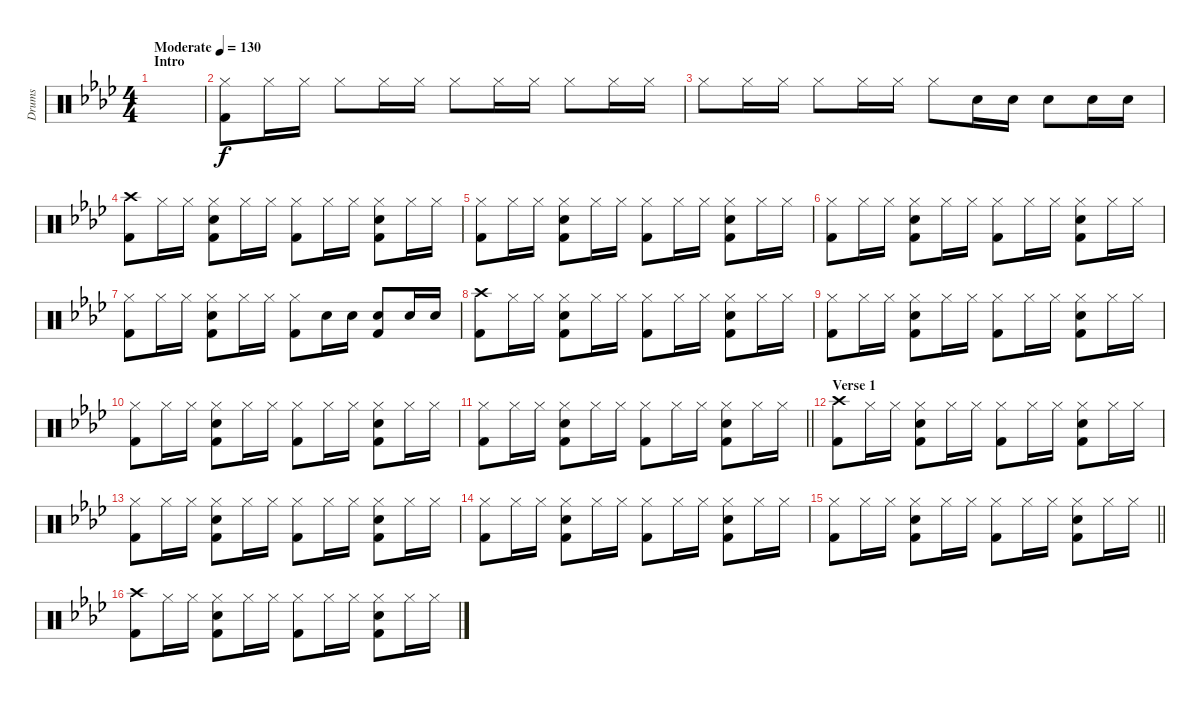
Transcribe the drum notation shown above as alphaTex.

\track ("Drums" "Drums") {instrument percussion}
\staff {score}
\articulation defaults
\ts (4 4)
\section ("" "Intro")
\tempo (130 "Moderate")
\clef neutral
\ks ab
|
("Hi-Hat (closed)" "Kick (hit) 2").8 "Hi-Hat (closed)".16 "Hi-Hat (closed)".16 "Hi-Hat (closed)".8 "Hi-Hat (closed)".16 "Hi-Hat (closed)".16 "Hi-Hat (closed)".8 "Hi-Hat (closed)".16 "Hi-Hat (closed)".16 "Hi-Hat (closed)".8 "Hi-Hat (closed)".16 "Hi-Hat (closed)".16 |
"Hi-Hat (closed)".8 "Hi-Hat (closed)".16 "Hi-Hat (closed)".16 "Hi-Hat (closed)".8 "Hi-Hat (closed)".16 "Hi-Hat (closed)".16 "Hi-Hat (closed)".8 "Snare (hit) 2".16 "Snare (hit) 2".16 "Snare (hit) 2".8 "Snare (hit) 2".16 "Snare (hit) 2".16 |
("Crash high (hit)" "Kick (hit) 2").8 "Hi-Hat (closed)".16 "Hi-Hat (closed)".16 ("Hi-Hat (closed)" "Snare (hit) 2" "Kick (hit) 2").8 "Hi-Hat (closed)".16 "Hi-Hat (closed)".16 ("Hi-Hat (closed)" "Kick (hit) 2").8 "Hi-Hat (closed)".16 "Hi-Hat (closed)".16 ("Hi-Hat (closed)" "Snare (hit) 2" "Kick (hit) 2").8 "Hi-Hat (closed)".16 "Hi-Hat (closed)".16 |
("Hi-Hat (closed)" "Kick (hit) 2").8 "Hi-Hat (closed)".16 "Hi-Hat (closed)".16 ("Hi-Hat (closed)" "Snare (hit) 2" "Kick (hit) 2").8 "Hi-Hat (closed)".16 "Hi-Hat (closed)".16 ("Hi-Hat (closed)" "Kick (hit) 2").8 "Hi-Hat (closed)".16 "Hi-Hat (closed)".16 ("Hi-Hat (closed)" "Snare (hit) 2" "Kick (hit) 2").8 "Hi-Hat (closed)".16 "Hi-Hat (closed)".16 |
("Hi-Hat (closed)" "Kick (hit) 2").8 "Hi-Hat (closed)".16 "Hi-Hat (closed)".16 ("Hi-Hat (closed)" "Snare (hit) 2" "Kick (hit) 2").8 "Hi-Hat (closed)".16 "Hi-Hat (closed)".16 ("Hi-Hat (closed)" "Kick (hit) 2").8 "Hi-Hat (closed)".16 "Hi-Hat (closed)".16 ("Hi-Hat (closed)" "Snare (hit) 2" "Kick (hit) 2").8 "Hi-Hat (closed)".16 "Hi-Hat (closed)".16 |
("Hi-Hat (closed)" "Kick (hit) 2").8 "Hi-Hat (closed)".16 "Hi-Hat (closed)".16 ("Hi-Hat (closed)" "Snare (hit) 2" "Kick (hit) 2").8 "Hi-Hat (closed)".16 "Hi-Hat (closed)".16 ("Hi-Hat (closed)" "Kick (hit) 2").8 "Snare (hit) 2".16 "Snare (hit) 2".16 ("Snare (hit) 2" "Kick (hit) 2").8 "Snare (hit) 2".16 "Snare (hit) 2".16 |
("Crash high (hit)" "Kick (hit) 2").8 "Hi-Hat (closed)".16 "Hi-Hat (closed)".16 ("Hi-Hat (closed)" "Snare (hit) 2" "Kick (hit) 2").8 "Hi-Hat (closed)".16 "Hi-Hat (closed)".16 ("Hi-Hat (closed)" "Kick (hit) 2").8 "Hi-Hat (closed)".16 "Hi-Hat (closed)".16 ("Hi-Hat (closed)" "Snare (hit) 2" "Kick (hit) 2").8 "Hi-Hat (closed)".16 "Hi-Hat (closed)".16 |
("Hi-Hat (closed)" "Kick (hit) 2").8 "Hi-Hat (closed)".16 "Hi-Hat (closed)".16 ("Hi-Hat (closed)" "Snare (hit) 2" "Kick (hit) 2").8 "Hi-Hat (closed)".16 "Hi-Hat (closed)".16 ("Hi-Hat (closed)" "Kick (hit) 2").8 "Hi-Hat (closed)".16 "Hi-Hat (closed)".16 ("Hi-Hat (closed)" "Snare (hit) 2" "Kick (hit) 2").8 "Hi-Hat (closed)".16 "Hi-Hat (closed)".16 |
("Hi-Hat (closed)" "Kick (hit) 2").8 "Hi-Hat (closed)".16 "Hi-Hat (closed)".16 ("Hi-Hat (closed)" "Snare (hit) 2" "Kick (hit) 2").8 "Hi-Hat (closed)".16 "Hi-Hat (closed)".16 ("Hi-Hat (closed)" "Kick (hit) 2").8 "Hi-Hat (closed)".16 "Hi-Hat (closed)".16 ("Hi-Hat (closed)" "Snare (hit) 2" "Kick (hit) 2").8 "Hi-Hat (closed)".16 "Hi-Hat (closed)".16 |
\barLineRight lightlight
("Hi-Hat (closed)" "Kick (hit) 2").8 "Hi-Hat (closed)".16 "Hi-Hat (closed)".16 ("Hi-Hat (closed)" "Snare (hit) 2" "Kick (hit) 2").8 "Hi-Hat (closed)".16 "Hi-Hat (closed)".16 ("Hi-Hat (closed)" "Kick (hit) 2").8 "Hi-Hat (closed)".16 "Hi-Hat (closed)".16 ("Hi-Hat (closed)" "Snare (hit) 2" "Kick (hit) 2").8 "Hi-Hat (closed)".16 "Hi-Hat (closed)".16 |
\section ("" "Verse 1")
("Crash high (hit)" "Kick (hit) 2").8 "Hi-Hat (closed)".16 "Hi-Hat (closed)".16 ("Hi-Hat (closed)" "Snare (hit) 2" "Kick (hit) 2").8 "Hi-Hat (closed)".16 "Hi-Hat (closed)".16 ("Hi-Hat (closed)" "Kick (hit) 2").8 "Hi-Hat (closed)".16 "Hi-Hat (closed)".16 ("Hi-Hat (closed)" "Snare (hit) 2" "Kick (hit) 2").8 "Hi-Hat (closed)".16 "Hi-Hat (closed)".16 |
("Hi-Hat (closed)" "Kick (hit) 2").8 "Hi-Hat (closed)".16 "Hi-Hat (closed)".16 ("Hi-Hat (closed)" "Snare (hit) 2" "Kick (hit) 2").8 "Hi-Hat (closed)".16 "Hi-Hat (closed)".16 ("Hi-Hat (closed)" "Kick (hit) 2").8 "Hi-Hat (closed)".16 "Hi-Hat (closed)".16 ("Hi-Hat (closed)" "Snare (hit) 2" "Kick (hit) 2").8 "Hi-Hat (closed)".16 "Hi-Hat (closed)".16 |
("Hi-Hat (closed)" "Kick (hit) 2").8 "Hi-Hat (closed)".16 "Hi-Hat (closed)".16 ("Hi-Hat (closed)" "Snare (hit) 2" "Kick (hit) 2").8 "Hi-Hat (closed)".16 "Hi-Hat (closed)".16 ("Hi-Hat (closed)" "Kick (hit) 2").8 "Hi-Hat (closed)".16 "Hi-Hat (closed)".16 ("Hi-Hat (closed)" "Snare (hit) 2" "Kick (hit) 2").8 "Hi-Hat (closed)".16 "Hi-Hat (closed)".16 |
\barLineRight lightlight
("Hi-Hat (closed)" "Kick (hit) 2").8 "Hi-Hat (closed)".16 "Hi-Hat (closed)".16 ("Hi-Hat (closed)" "Snare (hit) 2" "Kick (hit) 2").8 "Hi-Hat (closed)".16 "Hi-Hat (closed)".16 ("Hi-Hat (closed)" "Kick (hit) 2").8 "Hi-Hat (closed)".16 "Hi-Hat (closed)".16 ("Hi-Hat (closed)" "Snare (hit) 2" "Kick (hit) 2").8 "Hi-Hat (closed)".16 "Hi-Hat (closed)".16 |
("Crash high (hit)" "Kick (hit) 2").8 "Hi-Hat (closed)".16 "Hi-Hat (closed)".16 ("Hi-Hat (closed)" "Snare (hit) 2" "Kick (hit) 2").8 "Hi-Hat (closed)".16 "Hi-Hat (closed)".16 ("Hi-Hat (closed)" "Kick (hit) 2").8 "Hi-Hat (closed)".16 "Hi-Hat (closed)".16 ("Hi-Hat (closed)" "Snare (hit) 2" "Kick (hit) 2").8 "Hi-Hat (closed)".16 "Hi-Hat (closed)".16
